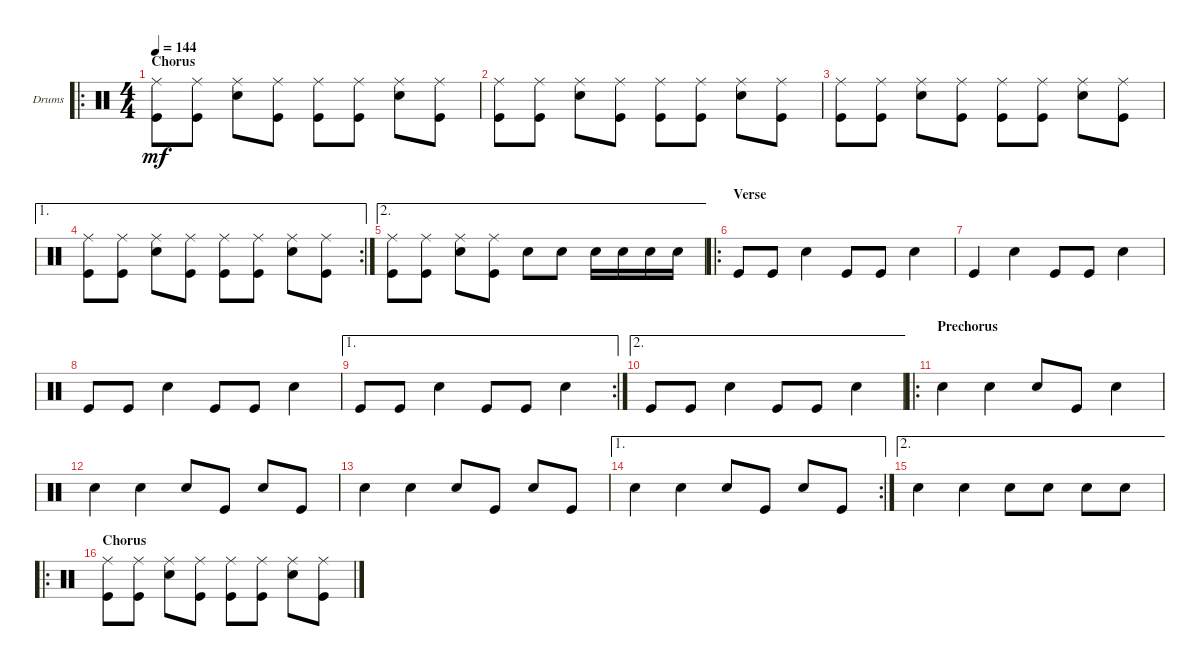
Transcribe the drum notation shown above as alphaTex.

\defaultSystemsLayout 4
\bracketExtendMode groupsimilarinstruments
\firstSystemTrackNameOrientation horizontal
\otherSystemsTrackNameOrientation horizontal
\track ("Fabrizio Moretti" "Drums") {instrument percussion}
\staff {score}
\articulation defaults
\ro
\ts (4 4)
\section ("" "Chorus")
\tempo 144
\clef neutral
\ks c
("Kick (hit)" "Ride (middle)").8{dy mf} ("Kick (hit)" "Ride (middle)").8 ("Snare (hit) 2" "Ride (middle)").8 ("Kick (hit)" "Ride (middle)").8 ("Kick (hit)" "Ride (middle)").8 ("Kick (hit)" "Ride (middle)").8 ("Snare (hit) 2" "Ride (middle)").8 ("Kick (hit)" "Ride (middle)").8 |
("Kick (hit)" "Ride (middle)").8 ("Kick (hit)" "Ride (middle)").8 ("Snare (hit) 2" "Ride (middle)").8 ("Kick (hit)" "Ride (middle)").8 ("Kick (hit)" "Ride (middle)").8 ("Kick (hit)" "Ride (middle)").8 ("Snare (hit) 2" "Ride (middle)").8 ("Kick (hit)" "Ride (middle)").8 |
("Kick (hit)" "Ride (middle)").8 ("Kick (hit)" "Ride (middle)").8 ("Snare (hit) 2" "Ride (middle)").8 ("Kick (hit)" "Ride (middle)").8 ("Kick (hit)" "Ride (middle)").8 ("Kick (hit)" "Ride (middle)").8 ("Snare (hit) 2" "Ride (middle)").8 ("Kick (hit)" "Ride (middle)").8 |
\ae 1
\rc 2
("Kick (hit)" "Ride (middle)").8 ("Kick (hit)" "Ride (middle)").8 ("Snare (hit) 2" "Ride (middle)").8 ("Kick (hit)" "Ride (middle)").8 ("Kick (hit)" "Ride (middle)").8 ("Kick (hit)" "Ride (middle)").8 ("Snare (hit) 2" "Ride (middle)").8 ("Kick (hit)" "Ride (middle)").8 |
\ae 2
("Kick (hit)" "Ride (middle)").8 ("Kick (hit)" "Ride (middle)").8 ("Snare (hit) 2" "Ride (middle)").8 ("Kick (hit)" "Ride (middle)").8 "Snare (hit) 2".8 "Snare (hit) 2".8 "Snare (hit) 2".16 "Snare (hit) 2".16 "Snare (hit) 2".16 "Snare (hit) 2".16 |
\ro
\section ("" "Verse")
"Kick (hit)".8 "Kick (hit)".8 "Snare (hit) 2".4 "Kick (hit)".8 "Kick (hit)".8 "Snare (hit) 2".4 |
"Kick (hit)".4 "Snare (hit) 2".4 "Kick (hit)".8 "Kick (hit)".8 "Snare (hit) 2".4 |
"Kick (hit)".8 "Kick (hit)".8 "Snare (hit) 2".4 "Kick (hit)".8 "Kick (hit)".8 "Snare (hit) 2".4 |
\ae 1
\rc 2 "Kick (hit)".8 "Kick (hit)".8 "Snare (hit) 2".4 "Kick (hit)".8 "Kick (hit)".8 "Snare (hit) 2".4
|
\ae 2 "Kick (hit)".8 "Kick (hit)".8 "Snare (hit) 2".4 "Kick (hit)".8 "Kick (hit)".8 "Snare (hit) 2".4
|
\ro
\section ("" "Prechorus")
"Snare (hit) 2".4 "Snare (hit) 2".4 "Snare (hit) 2".8 "Kick (hit)".8 "Snare (hit) 2".4 |
"Snare (hit) 2".4 "Snare (hit) 2".4 "Snare (hit) 2".8 "Kick (hit)".8 "Snare (hit) 2".8 "Kick (hit)".8 |
"Snare (hit) 2".4 "Snare (hit) 2".4 "Snare (hit) 2".8 "Kick (hit)".8 "Snare (hit) 2".8 "Kick (hit)".8 |
\ae 1
\rc 2 "Snare (hit) 2".4 "Snare (hit) 2".4 "Snare (hit) 2".8 "Kick (hit)".8 "Snare (hit) 2".8 "Kick (hit)".8
|
\ae 2 "Snare (hit) 2".4 "Snare (hit) 2".4 "Snare (hit) 2".8 "Snare (hit) 2".8 "Snare (hit) 2".8 "Snare (hit) 2".8
|
\ro
\section ("" "Chorus")
("Kick (hit)" "Ride (middle)").8 ("Kick (hit)" "Ride (middle)").8 ("Snare (hit) 2" "Ride (middle)").8 ("Kick (hit)" "Ride (middle)").8 ("Kick (hit)" "Ride (middle)").8 ("Kick (hit)" "Ride (middle)").8 ("Snare (hit) 2" "Ride (middle)").8 ("Kick (hit)" "Ride (middle)").8
